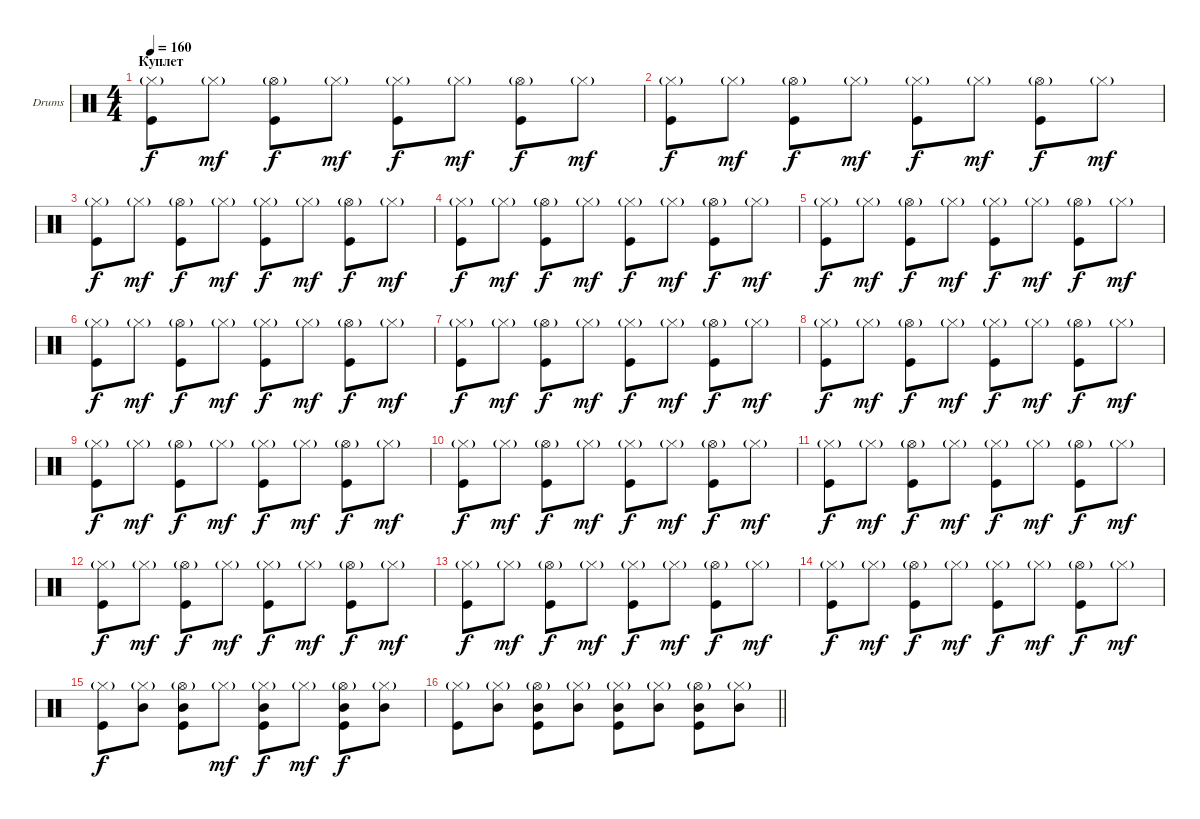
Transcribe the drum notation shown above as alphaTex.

\bracketExtendMode groupsimilarinstruments
\firstSystemTrackNameOrientation horizontal
\otherSystemsTrackNameOrientation horizontal
\track ("Ударные" "Drums") {instrument percussion}
\staff {score}
\articulation defaults
\ts (4 4)
\section ("" "Куплет")
\tempo 160
\clef neutral
\ks c
("Hi-Hat (closed)"{g} "Kick (hit)").8{dy f} "Hi-Hat (closed)"{g}.8{dy mf} ("Hi-Hat (open)"{g} "Kick (hit)").8{dy f} "Hi-Hat (closed)"{g}.8{dy mf} ("Hi-Hat (closed)"{g} "Kick (hit)").8{dy f} "Hi-Hat (closed)"{g}.8{dy mf} ("Hi-Hat (open)"{g} "Kick (hit)").8{dy f} "Hi-Hat (closed)"{g}.8{dy mf} |
("Hi-Hat (closed)"{g} "Kick (hit)").8{dy f} "Hi-Hat (closed)"{g}.8{dy mf} ("Hi-Hat (open)"{g} "Kick (hit)").8{dy f} "Hi-Hat (closed)"{g}.8{dy mf} ("Hi-Hat (closed)"{g} "Kick (hit)").8{dy f} "Hi-Hat (closed)"{g}.8{dy mf} ("Hi-Hat (open)"{g} "Kick (hit)").8{dy f} "Hi-Hat (closed)"{g}.8{dy mf} |
("Hi-Hat (closed)"{g} "Kick (hit)").8{dy f} "Hi-Hat (closed)"{g}.8{dy mf} ("Hi-Hat (open)"{g} "Kick (hit)").8{dy f} "Hi-Hat (closed)"{g}.8{dy mf} ("Hi-Hat (closed)"{g} "Kick (hit)").8{dy f} "Hi-Hat (closed)"{g}.8{dy mf} ("Hi-Hat (open)"{g} "Kick (hit)").8{dy f} "Hi-Hat (closed)"{g}.8{dy mf} |
("Hi-Hat (closed)"{g} "Kick (hit)").8{dy f} "Hi-Hat (closed)"{g}.8{dy mf} ("Hi-Hat (open)"{g} "Kick (hit)").8{dy f} "Hi-Hat (closed)"{g}.8{dy mf} ("Hi-Hat (closed)"{g} "Kick (hit)").8{dy f} "Hi-Hat (closed)"{g}.8{dy mf} ("Hi-Hat (open)"{g} "Kick (hit)").8{dy f} "Hi-Hat (closed)"{g}.8{dy mf} |
("Hi-Hat (closed)"{g} "Kick (hit)").8{dy f} "Hi-Hat (closed)"{g}.8{dy mf} ("Hi-Hat (open)"{g} "Kick (hit)").8{dy f} "Hi-Hat (closed)"{g}.8{dy mf} ("Hi-Hat (closed)"{g} "Kick (hit)").8{dy f} "Hi-Hat (closed)"{g}.8{dy mf} ("Hi-Hat (open)"{g} "Kick (hit)").8{dy f} "Hi-Hat (closed)"{g}.8{dy mf} |
("Hi-Hat (closed)"{g} "Kick (hit)").8{dy f} "Hi-Hat (closed)"{g}.8{dy mf} ("Hi-Hat (open)"{g} "Kick (hit)").8{dy f} "Hi-Hat (closed)"{g}.8{dy mf} ("Hi-Hat (closed)"{g} "Kick (hit)").8{dy f} "Hi-Hat (closed)"{g}.8{dy mf} ("Hi-Hat (open)"{g} "Kick (hit)").8{dy f} "Hi-Hat (closed)"{g}.8{dy mf} |
("Hi-Hat (closed)"{g} "Kick (hit)").8{dy f} "Hi-Hat (closed)"{g}.8{dy mf} ("Hi-Hat (open)"{g} "Kick (hit)").8{dy f} "Hi-Hat (closed)"{g}.8{dy mf} ("Hi-Hat (closed)"{g} "Kick (hit)").8{dy f} "Hi-Hat (closed)"{g}.8{dy mf} ("Hi-Hat (open)"{g} "Kick (hit)").8{dy f} "Hi-Hat (closed)"{g}.8{dy mf} |
("Hi-Hat (closed)"{g} "Kick (hit)").8{dy f} "Hi-Hat (closed)"{g}.8{dy mf} ("Hi-Hat (open)"{g} "Kick (hit)").8{dy f} "Hi-Hat (closed)"{g}.8{dy mf} ("Hi-Hat (closed)"{g} "Kick (hit)").8{dy f} "Hi-Hat (closed)"{g}.8{dy mf} ("Hi-Hat (open)"{g} "Kick (hit)").8{dy f} "Hi-Hat (closed)"{g}.8{dy mf} |
("Hi-Hat (closed)"{g} "Kick (hit)").8{dy f} "Hi-Hat (closed)"{g}.8{dy mf} ("Hi-Hat (open)"{g} "Kick (hit)").8{dy f} "Hi-Hat (closed)"{g}.8{dy mf} ("Hi-Hat (closed)"{g} "Kick (hit)").8{dy f} "Hi-Hat (closed)"{g}.8{dy mf} ("Hi-Hat (open)"{g} "Kick (hit)").8{dy f} "Hi-Hat (closed)"{g}.8{dy mf} |
("Hi-Hat (closed)"{g} "Kick (hit)").8{dy f} "Hi-Hat (closed)"{g}.8{dy mf} ("Hi-Hat (open)"{g} "Kick (hit)").8{dy f} "Hi-Hat (closed)"{g}.8{dy mf} ("Hi-Hat (closed)"{g} "Kick (hit)").8{dy f} "Hi-Hat (closed)"{g}.8{dy mf} ("Hi-Hat (open)"{g} "Kick (hit)").8{dy f} "Hi-Hat (closed)"{g}.8{dy mf} |
("Hi-Hat (closed)"{g} "Kick (hit)").8{dy f} "Hi-Hat (closed)"{g}.8{dy mf} ("Hi-Hat (open)"{g} "Kick (hit)").8{dy f} "Hi-Hat (closed)"{g}.8{dy mf} ("Hi-Hat (closed)"{g} "Kick (hit)").8{dy f} "Hi-Hat (closed)"{g}.8{dy mf} ("Hi-Hat (open)"{g} "Kick (hit)").8{dy f} "Hi-Hat (closed)"{g}.8{dy mf} |
("Hi-Hat (closed)"{g} "Kick (hit)").8{dy f} "Hi-Hat (closed)"{g}.8{dy mf} ("Hi-Hat (open)"{g} "Kick (hit)").8{dy f} "Hi-Hat (closed)"{g}.8{dy mf} ("Hi-Hat (closed)"{g} "Kick (hit)").8{dy f} "Hi-Hat (closed)"{g}.8{dy mf} ("Hi-Hat (open)"{g} "Kick (hit)").8{dy f} "Hi-Hat (closed)"{g}.8{dy mf} |
("Hi-Hat (closed)"{g} "Kick (hit)").8{dy f} "Hi-Hat (closed)"{g}.8{dy mf} ("Hi-Hat (open)"{g} "Kick (hit)").8{dy f} "Hi-Hat (closed)"{g}.8{dy mf} ("Hi-Hat (closed)"{g} "Kick (hit)").8{dy f} "Hi-Hat (closed)"{g}.8{dy mf} ("Hi-Hat (open)"{g} "Kick (hit)").8{dy f} "Hi-Hat (closed)"{g}.8{dy mf} |
("Hi-Hat (closed)"{g} "Kick (hit)").8{dy f} "Hi-Hat (closed)"{g}.8{dy mf} ("Hi-Hat (open)"{g} "Kick (hit)").8{dy f} "Hi-Hat (closed)"{g}.8{dy mf} ("Hi-Hat (closed)"{g} "Kick (hit)").8{dy f} "Hi-Hat (closed)"{g}.8{dy mf} ("Hi-Hat (open)"{g} "Kick (hit)").8{dy f} "Hi-Hat (closed)"{g}.8{dy mf} |
("Hi-Hat (closed)"{g} "Kick (hit)").8{dy f} ("Hi-Hat (closed)"{g} "Mid Tom (hit)").8 ("Hi-Hat (open)"{g} "Mid Tom (hit)" "Kick (hit)").8 "Hi-Hat (closed)"{g}.8{dy mf} ("Hi-Hat (closed)"{g} "Mid Tom (hit)" "Kick (hit)").8{dy f} "Hi-Hat (closed)"{g}.8{dy mf} ("Hi-Hat (open)"{g} "Mid Tom (hit)" "Kick (hit)").8{dy f} ("Hi-Hat (closed)"{g} "Mid Tom (hit)").8 |
\barLineRight lightlight
("Hi-Hat (closed)"{g} "Kick (hit)").8 ("Hi-Hat (closed)"{g} "Mid Tom (hit)").8 ("Hi-Hat (open)"{g} "Mid Tom (hit)" "Kick (hit)").8 ("Hi-Hat (closed)"{g} "Mid Tom (hit)").8 ("Hi-Hat (closed)"{g} "Mid Tom (hit)" "Kick (hit)").8 ("Hi-Hat (closed)"{g} "Mid Tom (hit)").8 ("Hi-Hat (open)"{g} "Mid Tom (hit)" "Kick (hit)").8 ("Hi-Hat (closed)"{g} "Mid Tom (hit)").8
